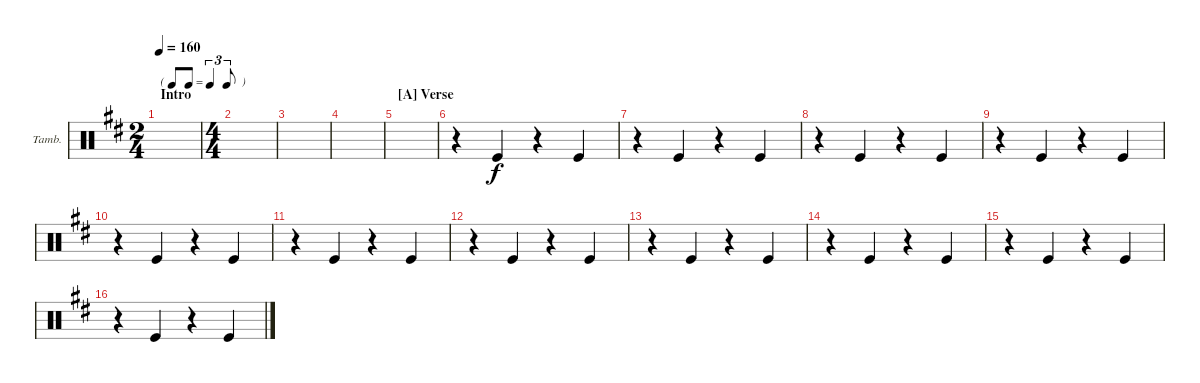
\defaultSystemsLayout 4
\bracketExtendMode groupsimilarinstruments
\firstSystemTrackNameOrientation horizontal
\otherSystemsTrackNameOrientation horizontal
\track ("Tambourine" "Tamb.") {instrument percussion}
\staff {score}
\articulation defaults
\ts (2 4)
\tf triplet8th
\section ("" "Intro")
\tempo 160
\clef neutral
\ks bminor
|
\ts (4 4)
|
|
|
\section ("A" "Verse")
|
r.4 "Kick (hit)".4 r.4 "Kick (hit)".4 |
r.4 "Kick (hit)".4 r.4 "Kick (hit)".4 |
r.4 "Kick (hit)".4 r.4 "Kick (hit)".4 |
r.4 "Kick (hit)".4 r.4 "Kick (hit)".4 |
r.4 "Kick (hit)".4 r.4 "Kick (hit)".4 |
r.4 "Kick (hit)".4 r.4 "Kick (hit)".4 |
r.4 "Kick (hit)".4 r.4 "Kick (hit)".4 |
r.4 "Kick (hit)".4 r.4 "Kick (hit)".4 |
r.4 "Kick (hit)".4 r.4 "Kick (hit)".4 |
r.4 "Kick (hit)".4 r.4 "Kick (hit)".4 |
r.4 "Kick (hit)".4 r.4 "Kick (hit)".4
